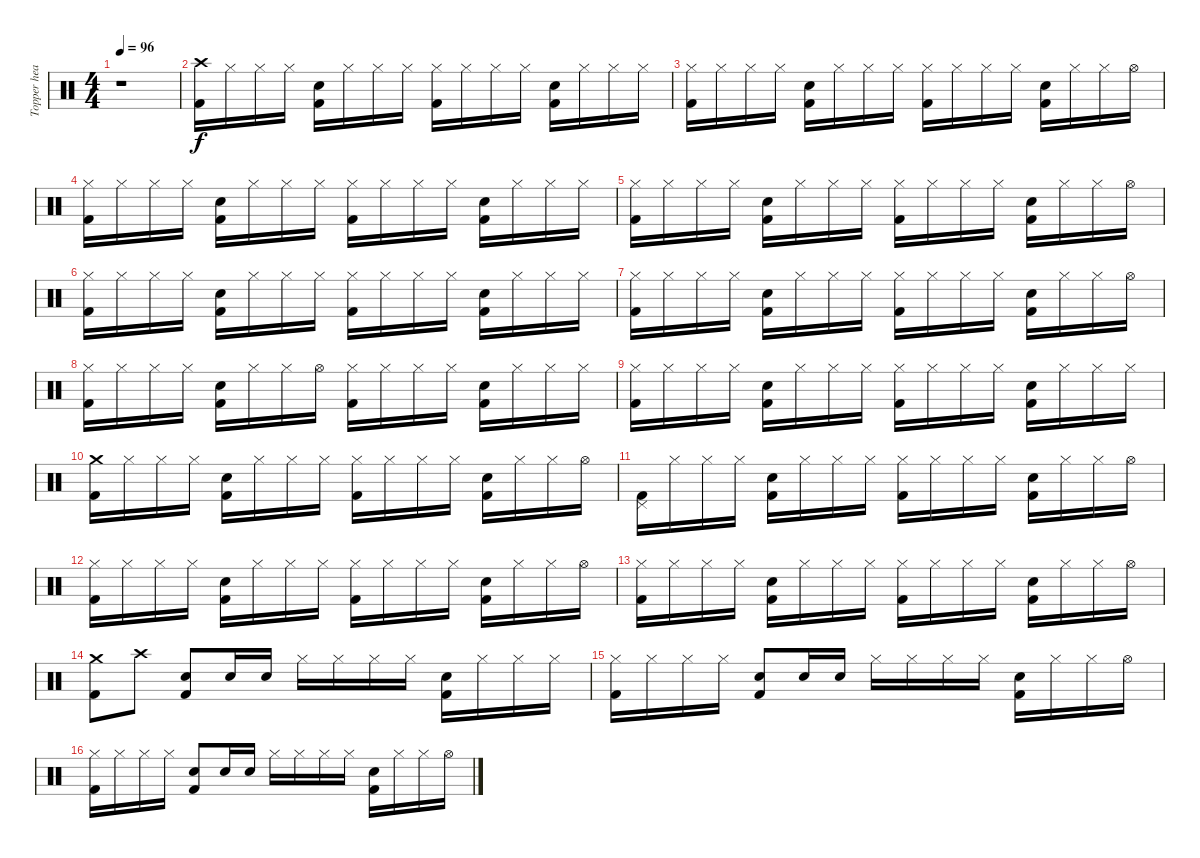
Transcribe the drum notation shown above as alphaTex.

\track ("Topper headon (drum)" "Topper hea") {instrument percussion}
\staff {score}
\articulation defaults
\ts (4 4)
\tempo 96
\clef neutral
\ks c
r.1{dy f} |
("Crash high (hit)" "Kick (hit) 2").16 "Hi-Hat (closed)".16 "Hi-Hat (closed)".16 "Hi-Hat (closed)".16 ("Electric Snare (hit)" "Kick (hit) 2").16 "Hi-Hat (closed)".16 "Hi-Hat (closed)".16 "Hi-Hat (closed)".16 ("Hi-Hat (closed)" "Kick (hit) 2").16 "Hi-Hat (closed)".16 "Hi-Hat (closed)".16 "Hi-Hat (closed)".16 ("Electric Snare (hit)" "Kick (hit) 2").16 "Hi-Hat (closed)".16 "Hi-Hat (closed)".16 "Hi-Hat (closed)".16 |
("Hi-Hat (closed)" "Kick (hit) 2").16 "Hi-Hat (closed)".16 "Hi-Hat (closed)".16 "Hi-Hat (closed)".16 ("Electric Snare (hit)" "Kick (hit) 2").16 "Hi-Hat (closed)".16 "Hi-Hat (closed)".16 "Hi-Hat (closed)".16 ("Hi-Hat (closed)" "Kick (hit) 2").16 "Hi-Hat (closed)".16 "Hi-Hat (closed)".16 "Hi-Hat (closed)".16 ("Electric Snare (hit)" "Kick (hit) 2").16 "Hi-Hat (closed)".16 "Hi-Hat (closed)".16 "Hi-Hat (open)".16 |
("Hi-Hat (closed)" "Kick (hit) 2").16 "Hi-Hat (closed)".16 "Hi-Hat (closed)".16 "Hi-Hat (closed)".16 ("Electric Snare (hit)" "Kick (hit) 2").16 "Hi-Hat (closed)".16 "Hi-Hat (closed)".16 "Hi-Hat (closed)".16 ("Hi-Hat (closed)" "Kick (hit) 2").16 "Hi-Hat (closed)".16 "Hi-Hat (closed)".16 "Hi-Hat (closed)".16 ("Electric Snare (hit)" "Kick (hit) 2").16 "Hi-Hat (closed)".16 "Hi-Hat (closed)".16 "Hi-Hat (closed)".16 |
("Hi-Hat (closed)" "Kick (hit) 2").16 "Hi-Hat (closed)".16 "Hi-Hat (closed)".16 "Hi-Hat (closed)".16 ("Electric Snare (hit)" "Kick (hit) 2").16 "Hi-Hat (closed)".16 "Hi-Hat (closed)".16 "Hi-Hat (closed)".16 ("Hi-Hat (closed)" "Kick (hit) 2").16 "Hi-Hat (closed)".16 "Hi-Hat (closed)".16 "Hi-Hat (closed)".16 ("Electric Snare (hit)" "Kick (hit) 2").16 "Hi-Hat (closed)".16 "Hi-Hat (closed)".16 "Hi-Hat (open)".16 |
("Hi-Hat (closed)" "Kick (hit) 2").16 "Hi-Hat (closed)".16 "Hi-Hat (closed)".16 "Hi-Hat (closed)".16 ("Electric Snare (hit)" "Kick (hit) 2").16 "Hi-Hat (closed)".16 "Hi-Hat (closed)".16 "Hi-Hat (closed)".16 ("Hi-Hat (closed)" "Kick (hit) 2").16 "Hi-Hat (closed)".16 "Hi-Hat (closed)".16 "Hi-Hat (closed)".16 ("Electric Snare (hit)" "Kick (hit) 2").16 "Hi-Hat (closed)".16 "Hi-Hat (closed)".16 "Hi-Hat (closed)".16 |
("Hi-Hat (closed)" "Kick (hit) 2").16 "Hi-Hat (closed)".16 "Hi-Hat (closed)".16 "Hi-Hat (closed)".16 ("Electric Snare (hit)" "Kick (hit) 2").16 "Hi-Hat (closed)".16 "Hi-Hat (closed)".16 "Hi-Hat (closed)".16 ("Hi-Hat (closed)" "Kick (hit) 2").16 "Hi-Hat (closed)".16 "Hi-Hat (closed)".16 "Hi-Hat (closed)".16 ("Electric Snare (hit)" "Kick (hit) 2").16 "Hi-Hat (closed)".16 "Hi-Hat (closed)".16 "Hi-Hat (open)".16 |
("Hi-Hat (closed)" "Kick (hit) 2").16 "Hi-Hat (closed)".16 "Hi-Hat (closed)".16 "Hi-Hat (closed)".16 ("Electric Snare (hit)" "Kick (hit) 2").16 "Hi-Hat (closed)".16 "Hi-Hat (closed)".16 "Hi-Hat (open)".16 ("Hi-Hat (closed)" "Kick (hit) 2").16 "Hi-Hat (closed)".16 "Hi-Hat (closed)".16 "Hi-Hat (closed)".16 ("Electric Snare (hit)" "Kick (hit) 2").16 "Hi-Hat (closed)".16 "Hi-Hat (closed)".16 "Hi-Hat (closed)".16 |
("Hi-Hat (closed)" "Kick (hit) 2").16 "Hi-Hat (closed)".16 "Hi-Hat (closed)".16 "Hi-Hat (closed)".16 ("Electric Snare (hit)" "Kick (hit) 2").16 "Hi-Hat (closed)".16 "Hi-Hat (closed)".16 "Hi-Hat (closed)".16 ("Hi-Hat (closed)" "Kick (hit) 2").16 "Hi-Hat (closed)".16 "Hi-Hat (closed)".16 "Hi-Hat (closed)".16 ("Electric Snare (hit)" "Kick (hit) 2").16 "Hi-Hat (closed)".16 "Hi-Hat (closed)".16 "Hi-Hat (closed)".16 |
("Crash medium (hit)" "Kick (hit) 2").16 "Hi-Hat (closed)".16 "Hi-Hat (closed)".16 "Hi-Hat (closed)".16 ("Electric Snare (hit)" "Kick (hit) 2").16 "Hi-Hat (closed)".16 "Hi-Hat (closed)".16 "Hi-Hat (closed)".16 ("Hi-Hat (closed)" "Kick (hit) 2").16 "Hi-Hat (closed)".16 "Hi-Hat (closed)".16 "Hi-Hat (closed)".16 ("Electric Snare (hit)" "Kick (hit) 2").16 "Hi-Hat (closed)".16 "Hi-Hat (closed)".16 "Hi-Hat (open)".16 |
("Pedal Hi-Hat (hit)" "Kick (hit) 2").16 "Hi-Hat (closed)".16 "Hi-Hat (closed)".16 "Hi-Hat (closed)".16 ("Electric Snare (hit)" "Kick (hit) 2").16 "Hi-Hat (closed)".16 "Hi-Hat (closed)".16 "Hi-Hat (closed)".16 ("Hi-Hat (closed)" "Kick (hit) 2").16 "Hi-Hat (closed)".16 "Hi-Hat (closed)".16 "Hi-Hat (closed)".16 ("Electric Snare (hit)" "Kick (hit) 2").16 "Hi-Hat (closed)".16 "Hi-Hat (closed)".16 "Hi-Hat (open)".16 |
("Hi-Hat (closed)" "Kick (hit) 2").16 "Hi-Hat (closed)".16 "Hi-Hat (closed)".16 "Hi-Hat (closed)".16 ("Electric Snare (hit)" "Kick (hit) 2").16 "Hi-Hat (closed)".16 "Hi-Hat (closed)".16 "Hi-Hat (closed)".16 ("Hi-Hat (closed)" "Kick (hit) 2").16 "Hi-Hat (closed)".16 "Hi-Hat (closed)".16 "Hi-Hat (closed)".16 ("Electric Snare (hit)" "Kick (hit) 2").16 "Hi-Hat (closed)".16 "Hi-Hat (closed)".16 "Hi-Hat (open)".16 |
("Hi-Hat (closed)" "Kick (hit) 2").16 "Hi-Hat (closed)".16 "Hi-Hat (closed)".16 "Hi-Hat (closed)".16 ("Electric Snare (hit)" "Kick (hit) 2").16 "Hi-Hat (closed)".16 "Hi-Hat (closed)".16 "Hi-Hat (closed)".16 ("Hi-Hat (closed)" "Kick (hit) 2").16 "Hi-Hat (closed)".16 "Hi-Hat (closed)".16 "Hi-Hat (closed)".16 ("Electric Snare (hit)" "Kick (hit) 2").16 "Hi-Hat (closed)".16 "Hi-Hat (closed)".16 "Hi-Hat (open)".16 |
("Crash medium (hit)" "Kick (hit) 2").8 "Crash high (hit)".8 ("Electric Snare (hit)" "Kick (hit) 2").8 "Electric Snare (hit)".16 "Electric Snare (hit)".16 "Hi-Hat (closed)".16 "Hi-Hat (closed)".16 "Hi-Hat (closed)".16 "Hi-Hat (closed)".16 ("Electric Snare (hit)" "Kick (hit) 2").16 "Hi-Hat (closed)".16 "Hi-Hat (closed)".16 "Hi-Hat (closed)".16 |
("Hi-Hat (closed)" "Kick (hit) 2").16 "Hi-Hat (closed)".16 "Hi-Hat (closed)".16 "Hi-Hat (closed)".16 ("Electric Snare (hit)" "Kick (hit) 2").8 "Electric Snare (hit)".16 "Electric Snare (hit)".16 "Hi-Hat (closed)".16 "Hi-Hat (closed)".16 "Hi-Hat (closed)".16 "Hi-Hat (closed)".16 ("Electric Snare (hit)" "Kick (hit) 2").16 "Hi-Hat (closed)".16 "Hi-Hat (closed)".16 "Hi-Hat (open)".16 |
("Hi-Hat (closed)" "Kick (hit) 2").16 "Hi-Hat (closed)".16 "Hi-Hat (closed)".16 "Hi-Hat (closed)".16 ("Electric Snare (hit)" "Kick (hit) 2").8 "Electric Snare (hit)".16 "Electric Snare (hit)".16 "Hi-Hat (closed)".16 "Hi-Hat (closed)".16 "Hi-Hat (closed)".16 "Hi-Hat (closed)".16 ("Electric Snare (hit)" "Kick (hit) 2").16 "Hi-Hat (closed)".16 "Hi-Hat (closed)".16 "Hi-Hat (open)".16
